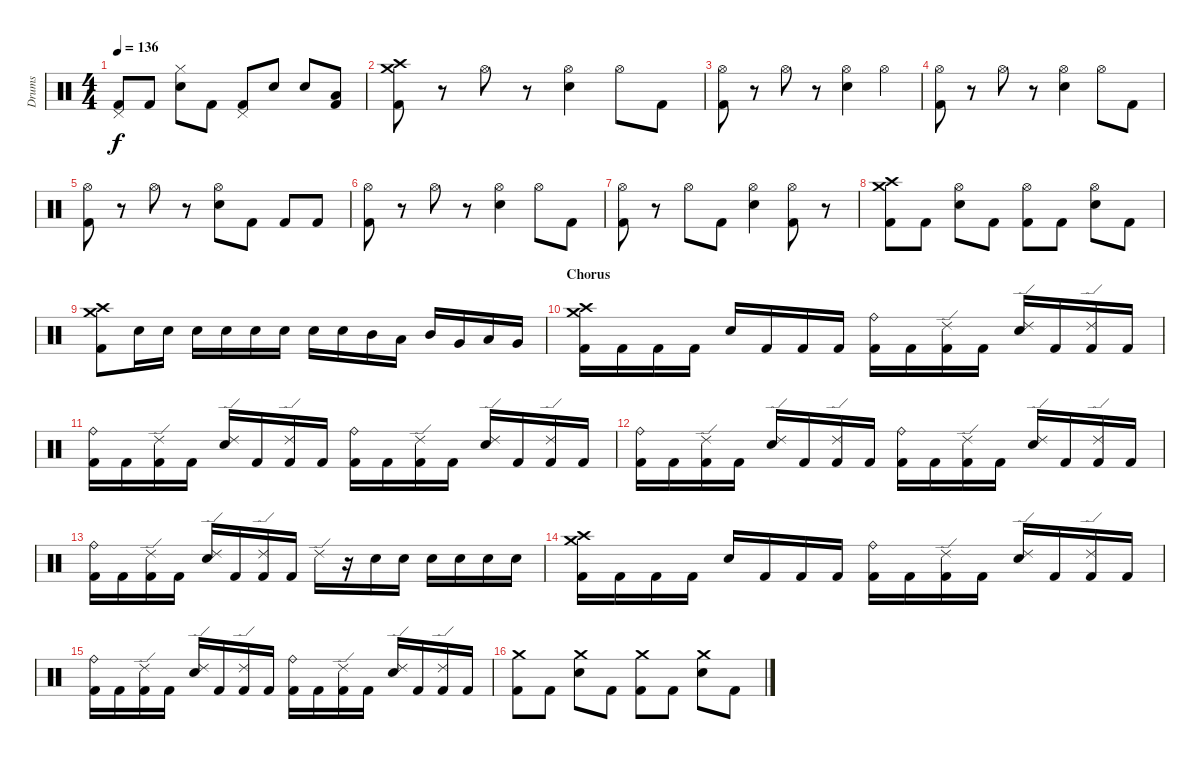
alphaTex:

\track ("Drums" "Drums") {instrument percussion}
\staff {score}
\articulation defaults
\ts (4 4)
\tempo 136
\clef neutral
\ks c
("Pedal Hi-Hat (hit)" "Kick (hit) 2").8{dy f} "Kick (hit) 2".8 ("Hi-Hat (closed)" "Electric Snare (hit)").8 "Kick (hit) 2".8 ("Pedal Hi-Hat (hit)" "Kick (hit) 2").8 "Electric Snare (hit)".8 "Electric Snare (hit)".8 ("Low Tom (hit)" "Kick (hit) 2").8 |
("Crash medium (hit)" "Crash high (hit)" "Kick (hit) 2").8 r.8 "Hi-Hat (open)".8 r.8 ("Hi-Hat (open)" "Electric Snare (hit)").4 "Hi-Hat (open)".8 "Kick (hit) 2".8 |
("Hi-Hat (open)" "Kick (hit) 2").8 r.8 "Hi-Hat (open)".8 r.8 ("Hi-Hat (open)" "Electric Snare (hit)").4 "Hi-Hat (open)".4 |
("Hi-Hat (open)" "Kick (hit) 2").8 r.8 "Hi-Hat (open)".8 r.8 ("Hi-Hat (open)" "Electric Snare (hit)").4 "Hi-Hat (open)".8 "Kick (hit) 2".8 |
("Hi-Hat (open)" "Kick (hit) 2").8 r.8 "Hi-Hat (open)".8 r.8 ("Hi-Hat (open)" "Electric Snare (hit)").8 "Kick (hit) 2".8 "Kick (hit) 2".8 "Kick (hit) 2".8 |
("Hi-Hat (open)" "Kick (hit) 2").8 r.8 "Hi-Hat (open)".8 r.8 ("Hi-Hat (open)" "Electric Snare (hit)").4 "Hi-Hat (open)".8 "Kick (hit) 2".8 |
("Hi-Hat (open)" "Kick (hit) 2").8 r.8 "Hi-Hat (open)".8 "Kick (hit) 2".8 ("Hi-Hat (open)" "Electric Snare (hit)").4 ("Hi-Hat (open)" "Kick (hit) 2").8 r.8 |
("Crash medium (hit)" "Crash high (hit)" "Kick (hit) 2").8 "Kick (hit) 2".8 ("Hi-Hat (open)" "Electric Snare (hit)").8 "Kick (hit) 2".8 ("Hi-Hat (open)" "Kick (hit) 2").8 "Kick (hit) 2".8 ("Hi-Hat (open)" "Electric Snare (hit)").8 "Kick (hit) 2".8 |
("Crash medium (hit)" "Crash high (hit)" "Kick (hit) 2").8 "Electric Snare (hit)".16 "Electric Snare (hit)".16 "Electric Snare (hit)".16 "Electric Snare (hit)".16 "Snare (hit) 2".16 "Snare (hit) 2".16 "Electric Snare (hit)".16 "Electric Snare (hit)".16 "Mid Tom (hit)".16 "Low Tom (hit)".16 "Mid Tom (hit)".16 "Very Low Tom (hit)".16 "Low Tom (hit)".16 "Very Low Tom (hit)".16 |
\section ("" "Chorus")
("Crash medium (hit)" "Crash high (hit)" "Kick (hit) 2").16 "Kick (hit) 2".16 "Kick (hit) 2".16 "Kick (hit) 2".16 "Electric Snare (hit)".16 "Kick (hit) 2".16 "Kick (hit) 2".16 "Kick (hit) 2".16 ("Ride (bell)" "Kick (hit) 2").16 "Kick (hit) 2".16 ("Ride (edge) 2" "Kick (hit) 2").16 "Kick (hit) 2".16 ("Ride (edge) 2" "Electric Snare (hit)").16 "Kick (hit) 2".16 ("Ride (edge) 2" "Kick (hit) 2").16 "Kick (hit) 2".16 |
("Ride (bell)" "Kick (hit) 2").16 "Kick (hit) 2".16 ("Ride (edge) 2" "Kick (hit) 2").16 "Kick (hit) 2".16 ("Ride (edge) 2" "Electric Snare (hit)").16 "Kick (hit) 2".16 ("Ride (edge) 2" "Kick (hit) 2").16 "Kick (hit) 2".16 ("Ride (bell)" "Kick (hit) 2").16 "Kick (hit) 2".16 ("Ride (edge) 2" "Kick (hit) 2").16 "Kick (hit) 2".16 ("Ride (edge) 2" "Electric Snare (hit)").16 "Kick (hit) 2".16 ("Ride (edge) 2" "Kick (hit) 2").16 "Kick (hit) 2".16 |
("Ride (bell)" "Kick (hit) 2").16 "Kick (hit) 2".16 ("Ride (edge) 2" "Kick (hit) 2").16 "Kick (hit) 2".16 ("Ride (edge) 2" "Electric Snare (hit)").16 "Kick (hit) 2".16 ("Ride (edge) 2" "Kick (hit) 2").16 "Kick (hit) 2".16 ("Ride (bell)" "Kick (hit) 2").16 "Kick (hit) 2".16 ("Ride (edge) 2" "Kick (hit) 2").16 "Kick (hit) 2".16 ("Ride (edge) 2" "Electric Snare (hit)").16 "Kick (hit) 2".16 ("Ride (edge) 2" "Kick (hit) 2").16 "Kick (hit) 2".16 |
("Ride (bell)" "Kick (hit) 2").16 "Kick (hit) 2".16 ("Ride (edge) 2" "Kick (hit) 2").16 "Kick (hit) 2".16 ("Ride (edge) 2" "Electric Snare (hit)").16 "Kick (hit) 2".16 ("Ride (edge) 2" "Kick (hit) 2").16 "Kick (hit) 2".16 "Ride (edge) 2".16 r.16 "Electric Snare (hit)".16 "Electric Snare (hit)".16 "Electric Snare (hit)".16 "Electric Snare (hit)".16 "Electric Snare (hit)".16 "Snare (hit) 2".16 |
("Crash medium (hit)" "Crash high (hit)" "Kick (hit) 2").16 "Kick (hit) 2".16 "Kick (hit) 2".16 "Kick (hit) 2".16 "Electric Snare (hit)".16 "Kick (hit) 2".16 "Kick (hit) 2".16 "Kick (hit) 2".16 ("Ride (bell)" "Kick (hit) 2").16 "Kick (hit) 2".16 ("Ride (edge) 2" "Kick (hit) 2").16 "Kick (hit) 2".16 ("Ride (edge) 2" "Electric Snare (hit)").16 "Kick (hit) 2".16 ("Ride (edge) 2" "Kick (hit) 2").16 "Kick (hit) 2".16 |
("Ride (bell)" "Kick (hit) 2").16 "Kick (hit) 2".16 ("Ride (edge) 2" "Kick (hit) 2").16 "Kick (hit) 2".16 ("Ride (edge) 2" "Electric Snare (hit)").16 "Kick (hit) 2".16 ("Ride (edge) 2" "Kick (hit) 2").16 "Kick (hit) 2".16 ("Ride (bell)" "Kick (hit) 2").16 "Kick (hit) 2".16 ("Ride (edge) 2" "Kick (hit) 2").16 "Kick (hit) 2".16 ("Ride (edge) 2" "Electric Snare (hit)").16 "Kick (hit) 2".16 ("Ride (edge) 2" "Kick (hit) 2").16 "Kick (hit) 2".16 |
("Crash medium (hit)" "Kick (hit) 2").8 "Kick (hit) 2".8 ("Crash medium (hit)" "Electric Snare (hit)").8 "Kick (hit) 2".8 ("Crash medium (hit)" "Kick (hit) 2").8 "Kick (hit) 2".8 ("Crash medium (hit)" "Electric Snare (hit)").8 "Kick (hit) 2".8
